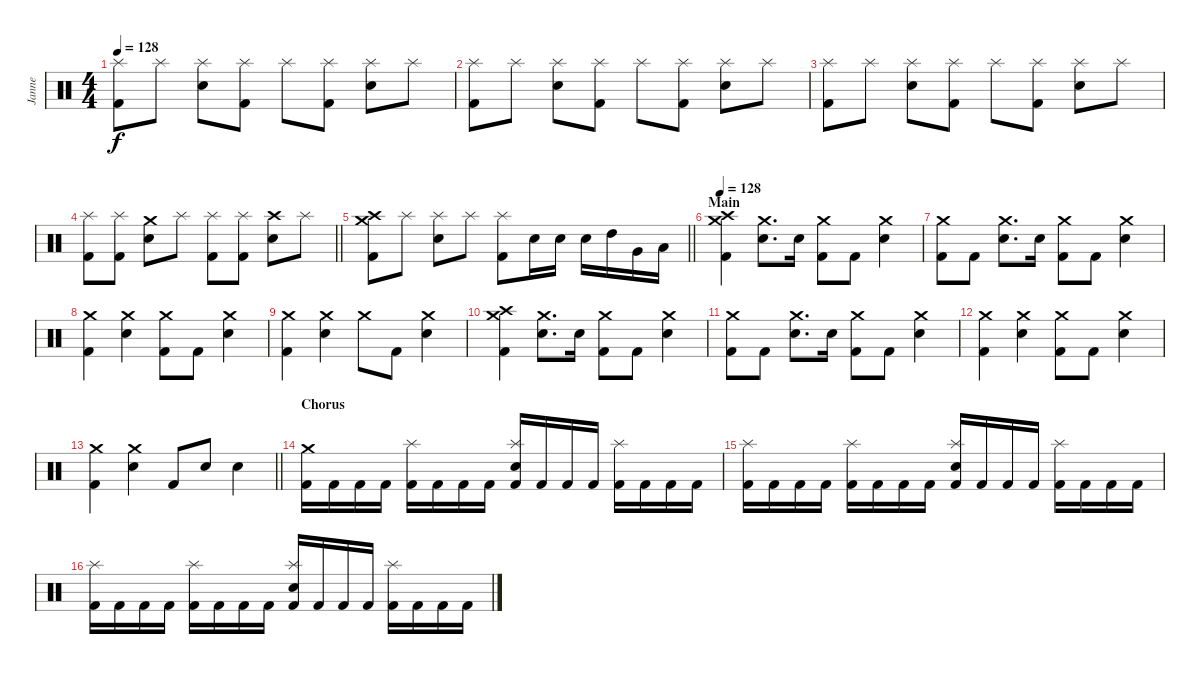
\track ("Janne" "Janne") {instrument percussion}
\staff {score}
\articulation defaults
\ts (4 4)
\tempo 128
\clef neutral
\ks c
("Kick (hit) 2" "Splash (hit)").8{dy f} "Splash (hit)".8 ("Snare (hit) 2" "Splash (hit)").8 ("Kick (hit) 2" "Splash (hit)").8 "Splash (hit)".8 ("Kick (hit) 2" "Splash (hit)").8 ("Snare (hit) 2" "Splash (hit)").8 "Splash (hit)".8 |
("Kick (hit) 2" "Splash (hit)").8 "Splash (hit)".8 ("Snare (hit) 2" "Splash (hit)").8 ("Kick (hit) 2" "Splash (hit)").8 "Splash (hit)".8 ("Kick (hit) 2" "Splash (hit)").8 ("Snare (hit) 2" "Splash (hit)").8 "Splash (hit)".8 |
("Kick (hit) 2" "Splash (hit)").8 "Splash (hit)".8 ("Snare (hit) 2" "Splash (hit)").8 ("Kick (hit) 2" "Splash (hit)").8 "Splash (hit)".8 ("Kick (hit) 2" "Splash (hit)").8 ("Snare (hit) 2" "Splash (hit)").8 "Splash (hit)".8 |
\barLineRight lightlight
("Kick (hit) 2" "Splash (hit)").8 ("Kick (hit) 2" "Splash (hit)").8 ("Snare (hit) 2" "Crash medium (hit)").8 "Splash (hit)".8 ("Kick (hit) 2" "Splash (hit)").8 ("Kick (hit) 2" "Splash (hit)").8 ("Snare (hit) 2" "Crash high (hit)").8 "Splash (hit)".8 |
\section ("" "")
\barLineRight lightlight
("Kick (hit) 2" "Crash high (hit)" "Crash medium (hit)").8 "Splash (hit)".8 ("Snare (hit) 2" "Splash (hit)").8 "Splash (hit)".8 ("Kick (hit) 2" "Splash (hit)").8 "Snare (hit) 2".16 "Snare (hit) 2".16 "Snare (hit) 2".16 "High Tom (hit)".16 "Very Low Tom (hit)".16 "Low Floor Tom (hit)".16 |
\section ("" "Main")
\tempo 128
("Kick (hit) 2" "Crash medium (hit)" "Crash high (hit)").4 ("Snare (hit) 2" "Crash medium (hit)").8{d} "Snare (hit) 2".16 ("Kick (hit) 2" "Crash medium (hit)").8 "Kick (hit) 2".8 ("Snare (hit) 2" "Crash medium (hit)").4 |
("Kick (hit) 2" "Crash medium (hit)").8 "Kick (hit) 2".8 ("Snare (hit) 2" "Crash medium (hit)").8{d} "Snare (hit) 2".16 ("Kick (hit) 2" "Crash medium (hit)").8 "Kick (hit) 2".8 ("Snare (hit) 2" "Crash medium (hit)").4 |
("Kick (hit) 2" "Crash medium (hit)").4 ("Snare (hit) 2" "Crash medium (hit)").4 ("Kick (hit) 2" "Crash medium (hit)").8 "Kick (hit) 2".8 ("Snare (hit) 2" "Crash medium (hit)").4 |
("Kick (hit) 2" "Crash medium (hit)").4 ("Snare (hit) 2" "Crash medium (hit)").4 "Crash medium (hit)".8 "Kick (hit) 2".8 ("Snare (hit) 2" "Crash medium (hit)").4 |
("Kick (hit) 2" "Crash medium (hit)" "Crash high (hit)").4 ("Snare (hit) 2" "Crash medium (hit)").8{d} "Snare (hit) 2".16 ("Kick (hit) 2" "Crash medium (hit)").8 "Kick (hit) 2".8 ("Snare (hit) 2" "Crash medium (hit)").4 |
("Kick (hit) 2" "Crash medium (hit)").8 "Kick (hit) 2".8 ("Snare (hit) 2" "Crash medium (hit)").8{d} "Snare (hit) 2".16 ("Kick (hit) 2" "Crash medium (hit)").8 "Kick (hit) 2".8 ("Snare (hit) 2" "Crash medium (hit)").4 |
("Kick (hit) 2" "Crash medium (hit)").4 ("Snare (hit) 2" "Crash medium (hit)").4 ("Kick (hit) 2" "Crash medium (hit)").8 "Kick (hit) 2".8 ("Snare (hit) 2" "Crash medium (hit)").4 |
\barLineRight lightlight
("Kick (hit) 2" "Crash medium (hit)").4 ("Snare (hit) 2" "Crash medium (hit)").4 "Kick (hit) 2".8 "Snare (hit) 2".8 "Snare (hit) 2".4 |
\section ("" "Chorus")
("Kick (hit) 2" "Crash medium (hit)").16 "Kick (hit) 2".16 "Kick (hit) 2".16 "Kick (hit) 2".16 ("Kick (hit) 2" "Splash (hit)").16 "Kick (hit) 2".16 "Kick (hit) 2".16 "Kick (hit) 2".16 ("Kick (hit) 2" "Snare (hit) 2" "Splash (hit)").16 "Kick (hit) 2".16 "Kick (hit) 2".16 "Kick (hit) 2".16 ("Kick (hit) 2" "Splash (hit)").16 "Kick (hit) 2".16 "Kick (hit) 2".16 "Kick (hit) 2".16 |
("Kick (hit) 2" "Splash (hit)").16 "Kick (hit) 2".16 "Kick (hit) 2".16 "Kick (hit) 2".16 ("Kick (hit) 2" "Splash (hit)").16 "Kick (hit) 2".16 "Kick (hit) 2".16 "Kick (hit) 2".16 ("Kick (hit) 2" "Snare (hit) 2" "Splash (hit)").16 "Kick (hit) 2".16 "Kick (hit) 2".16 "Kick (hit) 2".16 ("Kick (hit) 2" "Splash (hit)").16 "Kick (hit) 2".16 "Kick (hit) 2".16 "Kick (hit) 2".16 |
("Kick (hit) 2" "Splash (hit)").16 "Kick (hit) 2".16 "Kick (hit) 2".16 "Kick (hit) 2".16 ("Kick (hit) 2" "Splash (hit)").16 "Kick (hit) 2".16 "Kick (hit) 2".16 "Kick (hit) 2".16 ("Kick (hit) 2" "Snare (hit) 2" "Splash (hit)").16 "Kick (hit) 2".16 "Kick (hit) 2".16 "Kick (hit) 2".16 ("Kick (hit) 2" "Splash (hit)").16 "Kick (hit) 2".16 "Kick (hit) 2".16 "Kick (hit) 2".16
